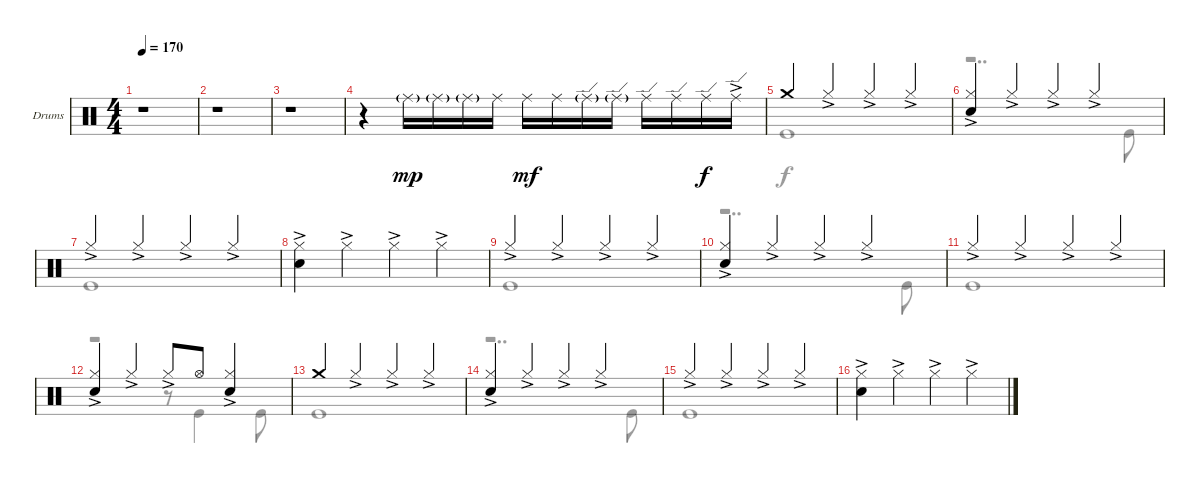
\defaultSystemsLayout 4
\bracketExtendMode groupsimilarinstruments
\firstSystemTrackNameOrientation horizontal
\otherSystemsTrackNameOrientation horizontal
\track ("Drumkit" "Drums") {instrument percussion}
\staff {score}
\articulation defaults
\voice
\ts (4 4)
\tempo 170
\clef neutral
\scale
1.05675
\ks c
r.1{dy mp} |
\scale
0.943253 r.1 |
\scale
1.02648 r.1 |
\scale
0.973518 r.4 "Ride (middle)"{g}.16 "Ride (middle)"{g}.16 "Ride (middle)"{g}.16 "Ride (middle)".16 "Ride (middle)".16{dy mf} "Ride (middle)".16 "Ride (edge)"{g}.16 "Ride (edge)"{g}.16 "Ride (edge)".16 "Ride (edge)".16 "Ride (edge)".16{dy f} "Ride (edge)"{ac}.16 |
\scale
1.02648 "Crash medium (hit)".4 "Hi-Hat (closed)"{ac}.4 "Hi-Hat (closed)"{ac}.4 "Hi-Hat (closed)"{ac}.4 |
\scale
0.973518 ("Hi-Hat (closed)"{ac} "Snare (hit) 2").4 "Hi-Hat (closed)"{ac}.4 "Hi-Hat (closed)"{ac}.4 "Hi-Hat (closed)"{ac}.4 |
\scale
1.02648 "Hi-Hat (closed)"{ac}.4 "Hi-Hat (closed)"{ac}.4 "Hi-Hat (closed)"{ac}.4 "Hi-Hat (closed)"{ac}.4 |
\scale
0.973518 ("Hi-Hat (closed)"{ac} "Snare (hit) 2").4 "Hi-Hat (closed)"{ac}.4 "Hi-Hat (closed)"{ac}.4 "Hi-Hat (closed)"{ac}.4 |
\scale
1.02648 "Hi-Hat (closed)"{ac}.4 "Hi-Hat (closed)"{ac}.4 "Hi-Hat (closed)"{ac}.4 "Hi-Hat (closed)"{ac}.4 |
\scale
0.973518 ("Hi-Hat (closed)"{ac} "Snare (hit) 2").4 "Hi-Hat (closed)"{ac}.4 "Hi-Hat (closed)"{ac}.4 "Hi-Hat (closed)"{ac}.4 |
\scale
1.02648 "Hi-Hat (closed)"{ac}.4 "Hi-Hat (closed)"{ac}.4 "Hi-Hat (closed)"{ac}.4 "Hi-Hat (closed)"{ac}.4 |
\scale
0.973518 ("Hi-Hat (closed)"{ac} "Snare (hit) 2").4 "Hi-Hat (closed)"{ac}.4 "Hi-Hat (closed)"{ac}.8 "Hi-Hat (open)".8 ("Hi-Hat (closed)"{ac} "Snare (hit) 2").4 |
\scale
1.02648 "Crash medium (hit)".4 "Hi-Hat (closed)"{ac}.4 "Hi-Hat (closed)"{ac}.4 "Hi-Hat (closed)"{ac}.4 |
\scale
0.973518 ("Hi-Hat (closed)"{ac} "Snare (hit) 2").4 "Hi-Hat (closed)"{ac}.4 "Hi-Hat (closed)"{ac}.4 "Hi-Hat (closed)"{ac}.4 |
\scale
1.02648 "Hi-Hat (closed)"{ac}.4 "Hi-Hat (closed)"{ac}.4 "Hi-Hat (closed)"{ac}.4 "Hi-Hat (closed)"{ac}.4 |
\scale
0.973518 ("Hi-Hat (closed)"{ac} "Snare (hit) 2").4 "Hi-Hat (closed)"{ac}.4 "Hi-Hat (closed)"{ac}.4 "Hi-Hat (closed)"{ac}.4
\voice
\clef neutral
\ottava regular
\simile none
\scale
1.05675
\ks c
|
\scale
0.943253 |
\scale
1.02648 |
\scale
0.973518 |
\scale
1.02648 "Kick (hit)".1 |
\scale
0.973518 r.2{dd} "Kick (hit)".8 |
\scale
1.02648 "Kick (hit)".1 |
\scale
0.973518 |
\scale
1.02648 "Kick (hit)".1 |
\scale
0.973518 r.2{dd} "Kick (hit)".8 |
\scale
1.02648 "Kick (hit)".1 |
\scale
0.973518 r.2 r.8 "Kick (hit)".4 "Kick (hit)".8 |
\scale
1.02648 "Kick (hit)".1 |
\scale
0.973518 r.2{dd} "Kick (hit)".8 |
\scale
1.02648 "Kick (hit)".1 |
\scale
0.973518
